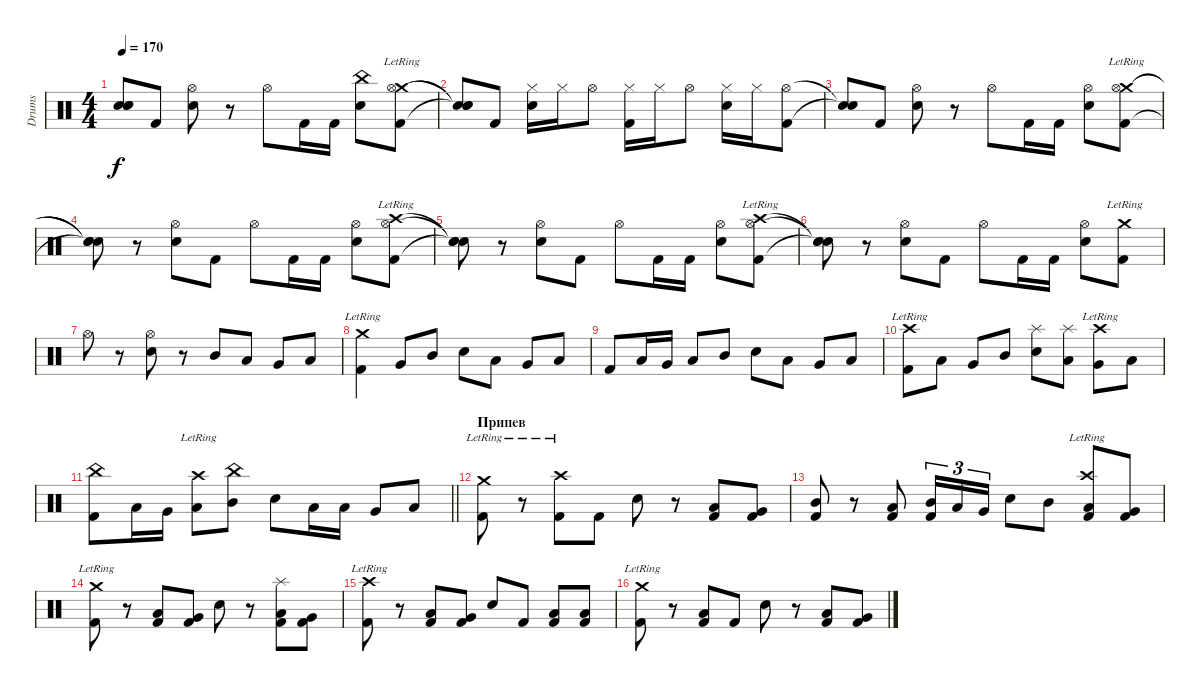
\track ("Drums" "Drums") {instrument percussion}
\staff {score}
\articulation defaults
\ts (4 4)
\tempo 170
\clef neutral
\ks c
("Snare (hit)"{t} "Snare (hit)"{t} "Snare (hit)"{t}).8{dy f} "Kick (hit) 2".8 ("Electric Snare (hit)" "Hi-Hat (open)").8 r.8 "Hi-Hat (open)".8 "Kick (hit) 2".16 "Kick (hit) 2".16 ("China (hit)" "Electric Snare (hit)").8 ("Crash medium (hit)"{lr} "Kick (hit) 2" "Hi-Hat (open)").8 |
("Snare (hit)"{t} "Snare (hit)"{t} "Snare (hit)"{t}).8 "Kick (hit) 2".8 ("Electric Snare (hit)" "Hi-Hat (closed)").16 "Hi-Hat (closed)".16 "Hi-Hat (open)".8 ("Kick (hit) 2" "Hi-Hat (closed)").16 "Hi-Hat (closed)".16 "Hi-Hat (open)".8 ("Electric Snare (hit)" "Hi-Hat (closed)").16 "Hi-Hat (closed)".16 ("Kick (hit) 2" "Hi-Hat (open)").8 |
("Snare (hit)"{t} "Snare (hit)"{t}).8 "Kick (hit) 2".8 ("Electric Snare (hit)" "Hi-Hat (open)").8 r.8 "Hi-Hat (open)".8 "Kick (hit) 2".16 "Kick (hit) 2".16 ("Electric Snare (hit)" "Hi-Hat (open)").8 ("Crash medium (hit)"{lr} "Kick (hit) 2" "Hi-Hat (open)").8 |
("Snare (hit)"{t} "Snare (hit)"{t} "Snare (hit)"{t}).8 r.8 ("Electric Snare (hit)" "Hi-Hat (open)").8 "Kick (hit) 2".8 "Hi-Hat (open)".8 "Kick (hit) 2".16 "Kick (hit) 2".16 ("Electric Snare (hit)" "Hi-Hat (open)").8 ("Crash high (hit)"{lr} "Kick (hit) 2" "Hi-Hat (open)").8 |
("Snare (hit)"{t} "Snare (hit)"{t} "Snare (hit)"{t}).8 r.8 ("Electric Snare (hit)" "Hi-Hat (open)").8 "Kick (hit) 2".8 "Hi-Hat (open)".8 "Kick (hit) 2".16 "Kick (hit) 2".16 ("Electric Snare (hit)" "Hi-Hat (open)").8 ("Crash high (hit)"{lr} "Kick (hit) 2" "Hi-Hat (open)").8 |
("Snare (hit)"{t} "Snare (hit)"{t} "Snare (hit)"{t}).8 r.8 ("Electric Snare (hit)" "Hi-Hat (open)").8 "Kick (hit) 2".8 "Hi-Hat (open)".8 "Kick (hit) 2".16 "Kick (hit) 2".16 ("Electric Snare (hit)" "Hi-Hat (open)").8 ("Crash medium (hit)"{lr} "Kick (hit) 2").8 |
"Hi-Hat (open)".8 r.8 ("Electric Snare (hit)" "Hi-Hat (open)").8 r.8 "Mid Tom (hit)".8 "Low Tom (hit)".8 "Very Low Tom (hit)".8 "Low Floor Tom (hit)".8 |
("Crash medium (hit)"{lr} "Kick (hit) 2").4 "Very Low Tom (hit)".8 "Mid Tom (hit)".8 "Electric Snare (hit)".8 "Low Tom (hit)".8 "Very Low Tom (hit)".8 "Low Floor Tom (hit)".8 |
"Kick (hit) 2".8 "Low Tom (hit)".16 "Very Low Tom (hit)".16 "Low Floor Tom (hit)".8 "Mid Tom (hit)".8 "Electric Snare (hit)".8 "Low Tom (hit)".8 "Very Low Tom (hit)".8 "Low Floor Tom (hit)".8 |
("Crash high (hit)"{lr} "Kick (hit) 2").8 "Low Tom (hit)".8 "Very Low Tom (hit)".8 "Mid Tom (hit)".8 ("Splash (hit)" "Electric Snare (hit)").8 ("Splash (hit)" "Low Tom (hit)").8 ("Crash high (hit)"{lr} "Very Low Tom (hit)").8 "Low Floor Tom (hit)".8 |
\barLineRight lightlight
("China (hit)" "Kick (hit) 2").8 "Low Tom (hit)".16 "Very Low Tom (hit)".16 ("Crash high (hit)"{lr} "Low Floor Tom (hit)").8 ("China (hit)" "Mid Tom (hit)").8 "Electric Snare (hit)".8 "Low Tom (hit)".16 "Low Tom (hit)".16 "Very Low Tom (hit)".8 "Low Floor Tom (hit)".8 |
\section ("" "Припев")
("Crash medium (hit)"{lr} "Kick (hit) 2").8 r.8 ("Crash high (hit)"{lr} "Kick (hit) 2").8 "Kick (hit) 2".8 "Electric Snare (hit)".8 r.8 ("Low Tom (hit)" "Kick (hit) 2").8 ("Very Low Tom (hit)" "Kick (hit) 2").8 |
("Mid Tom (hit)" "Kick (hit) 2").8 r.8 ("Low Tom (hit)" "Kick (hit) 2").8 ("Mid Tom (hit)" "Kick (hit) 2").16{tu (3 2)} "Low Tom (hit)".16{tu (3 2)} "Very Low Tom (hit)".16{tu (3 2)} "Electric Snare (hit)".8 "Mid Tom (hit)".8 ("Crash high (hit)"{lr} "Low Tom (hit)" "Kick (hit) 2").8 ("Very Low Tom (hit)" "Kick (hit) 2").8 |
("Crash medium (hit)"{lr} "Kick (hit) 2").8 r.8 ("Low Tom (hit)" "Kick (hit) 2").8 ("Very Low Tom (hit)" "Kick (hit) 2").8 "Electric Snare (hit)".8 r.8 ("Splash (hit)" "Low Tom (hit)" "Kick (hit) 2").8 ("Very Low Tom (hit)" "Kick (hit) 2").8 |
("Crash high (hit)"{lr} "Kick (hit) 2").8 r.8 ("Low Tom (hit)" "Kick (hit) 2").8 ("Very Low Tom (hit)" "Kick (hit) 2").8 "Electric Snare (hit)".8 "Kick (hit) 2".8 ("Low Floor Tom (hit)" "Kick (hit) 2").8 ("Low Floor Tom (hit)" "Kick (hit) 2").8 |
("Crash medium (hit)"{lr} "Kick (hit) 2").8 r.8 ("Low Tom (hit)" "Kick (hit) 2").8 "Kick (hit) 2".8 "Electric Snare (hit)".8 r.8 ("Low Tom (hit)" "Kick (hit) 2").8 ("Very Low Tom (hit)" "Kick (hit) 2").8
